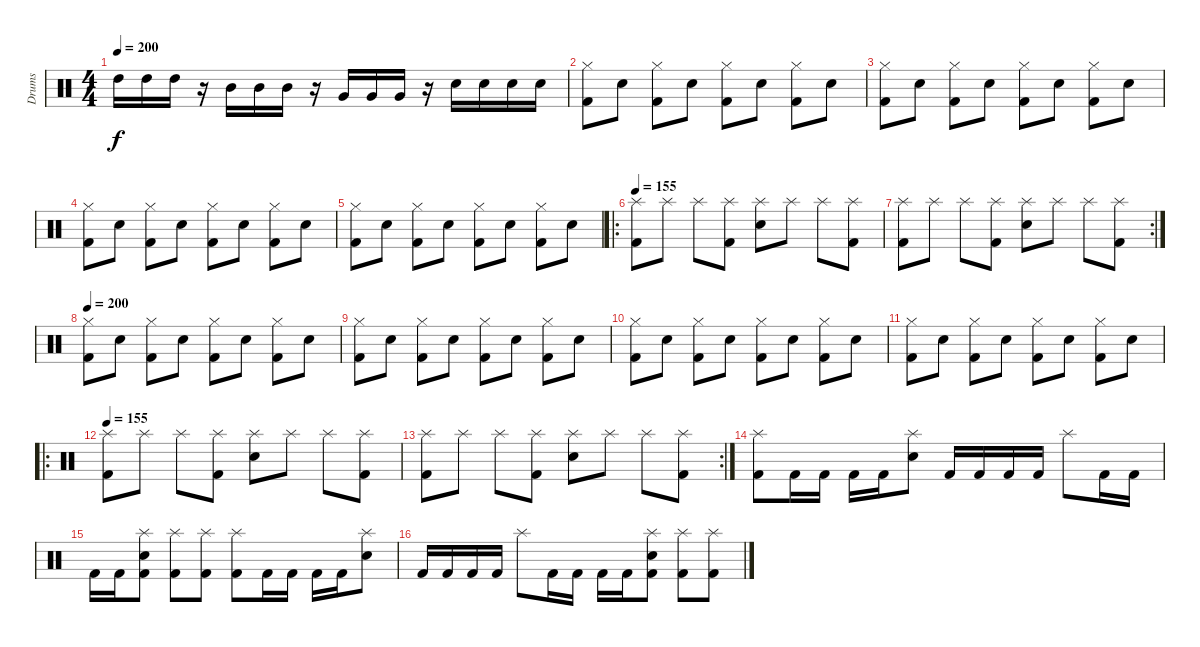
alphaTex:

\track ("Drums" "Drums") {instrument percussion}
\staff {score}
\articulation defaults
\ts (4 4)
\tempo 200
\clef neutral
\ks c "High Tom (hit)".16{dy f} "High Tom (hit)".16 "High Tom (hit)".16
r.16 "Mid Tom (hit)".16 "Mid Tom (hit)".16 "Mid Tom (hit)".16 r.16 "Very Low Tom (hit)".16 "Very Low Tom (hit)".16 "Very Low Tom (hit)".16 r.16 "Snare (hit) 2".16 "Snare (hit) 2".16 "Snare (hit) 2".16 "Snare (hit) 2".16 |
("Kick (hit) 2" "Hi-Hat (closed)").8 "Snare (hit) 2".8 ("Kick (hit) 2" "Hi-Hat (closed)").8 "Snare (hit) 2".8 ("Kick (hit) 2" "Hi-Hat (closed)").8 "Snare (hit) 2".8 ("Kick (hit) 2" "Hi-Hat (closed)").8 "Snare (hit) 2".8 |
("Kick (hit) 2" "Hi-Hat (closed)").8 "Snare (hit) 2".8 ("Kick (hit) 2" "Hi-Hat (closed)").8 "Snare (hit) 2".8 ("Kick (hit) 2" "Hi-Hat (closed)").8 "Snare (hit) 2".8 ("Kick (hit) 2" "Hi-Hat (closed)").8 "Snare (hit) 2".8 |
("Kick (hit) 2" "Hi-Hat (closed)").8 "Snare (hit) 2".8 ("Kick (hit) 2" "Hi-Hat (closed)").8 "Snare (hit) 2".8 ("Kick (hit) 2" "Hi-Hat (closed)").8 "Snare (hit) 2".8 ("Kick (hit) 2" "Hi-Hat (closed)").8 "Snare (hit) 2".8 |
("Kick (hit) 2" "Hi-Hat (closed)").8 "Snare (hit) 2".8 ("Kick (hit) 2" "Hi-Hat (closed)").8 "Snare (hit) 2".8 ("Kick (hit) 2" "Hi-Hat (closed)").8 "Snare (hit) 2".8 ("Kick (hit) 2" "Hi-Hat (closed)").8 "Snare (hit) 2".8 |
\ro
\tempo 155
("Kick (hit) 2" "Splash (hit)").8 "Splash (hit)".8 "Splash (hit)".8 ("Kick (hit) 2" "Splash (hit)").8 ("Snare (hit) 2" "Splash (hit)").8 "Splash (hit)".8 "Splash (hit)".8 ("Kick (hit) 2" "Splash (hit)").8 |
\rc 2
("Kick (hit) 2" "Splash (hit)").8 "Splash (hit)".8 "Splash (hit)".8 ("Kick (hit) 2" "Splash (hit)").8 ("Snare (hit) 2" "Splash (hit)").8 "Splash (hit)".8 "Splash (hit)".8 ("Kick (hit) 2" "Splash (hit)").8 |
\tempo 200
("Kick (hit) 2" "Hi-Hat (closed)").8 "Snare (hit) 2".8 ("Kick (hit) 2" "Hi-Hat (closed)").8 "Snare (hit) 2".8 ("Kick (hit) 2" "Hi-Hat (closed)").8 "Snare (hit) 2".8 ("Kick (hit) 2" "Hi-Hat (closed)").8 "Snare (hit) 2".8 |
("Kick (hit) 2" "Hi-Hat (closed)").8 "Snare (hit) 2".8 ("Kick (hit) 2" "Hi-Hat (closed)").8 "Snare (hit) 2".8 ("Kick (hit) 2" "Hi-Hat (closed)").8 "Snare (hit) 2".8 ("Kick (hit) 2" "Hi-Hat (closed)").8 "Snare (hit) 2".8 |
("Kick (hit) 2" "Hi-Hat (closed)").8 "Snare (hit) 2".8 ("Kick (hit) 2" "Hi-Hat (closed)").8 "Snare (hit) 2".8 ("Kick (hit) 2" "Hi-Hat (closed)").8 "Snare (hit) 2".8 ("Kick (hit) 2" "Hi-Hat (closed)").8 "Snare (hit) 2".8 |
("Kick (hit) 2" "Hi-Hat (closed)").8 "Snare (hit) 2".8 ("Kick (hit) 2" "Hi-Hat (closed)").8 "Snare (hit) 2".8 ("Kick (hit) 2" "Hi-Hat (closed)").8 "Snare (hit) 2".8 ("Kick (hit) 2" "Hi-Hat (closed)").8 "Snare (hit) 2".8 |
\ro
\tempo 155
("Kick (hit) 2" "Splash (hit)").8 "Splash (hit)".8 "Splash (hit)".8 ("Kick (hit) 2" "Splash (hit)").8 ("Snare (hit) 2" "Splash (hit)").8 "Splash (hit)".8 "Splash (hit)".8 ("Kick (hit) 2" "Splash (hit)").8 |
\rc 2
("Kick (hit) 2" "Splash (hit)").8 "Splash (hit)".8 "Splash (hit)".8 ("Kick (hit) 2" "Splash (hit)").8 ("Snare (hit) 2" "Splash (hit)").8 "Splash (hit)".8 "Splash (hit)".8 ("Kick (hit) 2" "Splash (hit)").8 |
("Kick (hit) 2" "Splash (hit)").8 "Kick (hit) 2".16 "Kick (hit) 2".16 "Kick (hit) 2".16 "Kick (hit) 2".16 ("Snare (hit) 2" "Splash (hit)").8 "Kick (hit) 2".16 "Kick (hit) 2".16 "Kick (hit) 2".16 "Kick (hit) 2".16 "Splash (hit)".8 "Kick (hit) 2".16 "Kick (hit) 2".16 |
"Kick (hit) 2".16 "Kick (hit) 2".16 ("Snare (hit) 2" "Splash (hit)" "Kick (hit) 2").8 ("Kick (hit) 2" "Splash (hit)").8 ("Kick (hit) 2" "Splash (hit)").8 ("Kick (hit) 2" "Splash (hit)").8 "Kick (hit) 2".16 "Kick (hit) 2".16 "Kick (hit) 2".16 "Kick (hit) 2".16 ("Snare (hit) 2" "Splash (hit)").8 |
"Kick (hit) 2".16 "Kick (hit) 2".16 "Kick (hit) 2".16 "Kick (hit) 2".16 "Splash (hit)".8 "Kick (hit) 2".16 "Kick (hit) 2".16 "Kick (hit) 2".16 "Kick (hit) 2".16 ("Snare (hit) 2" "Splash (hit)" "Kick (hit) 2").8 ("Kick (hit) 2" "Splash (hit)").8 ("Kick (hit) 2" "Splash (hit)").8
